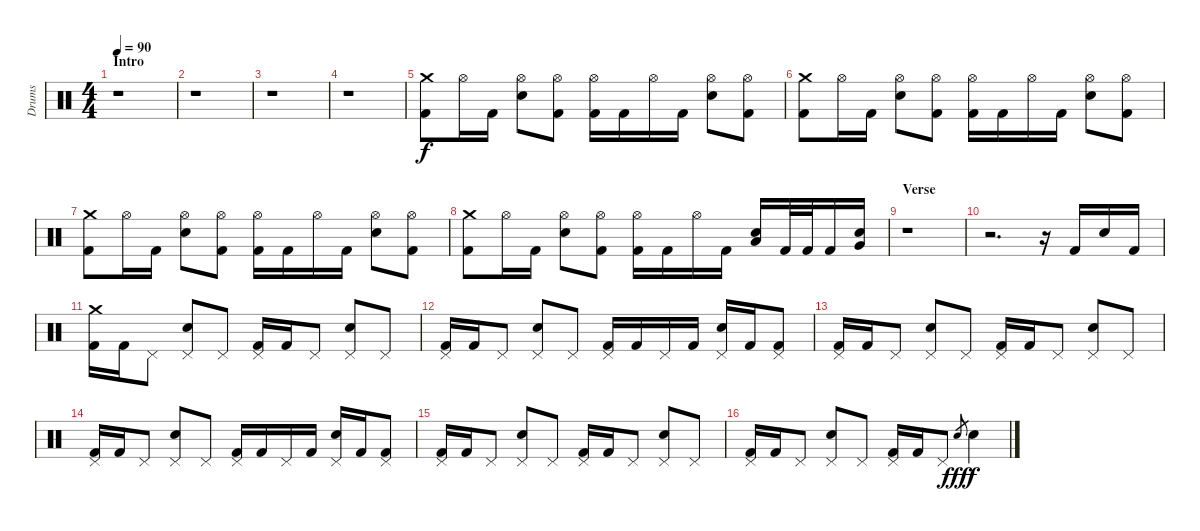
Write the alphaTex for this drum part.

\track ("Drums" "Drums") {instrument percussion}
\staff {score}
\articulation defaults
\ts (4 4)
\section ("" "Intro")
\tempo 90
\clef neutral
\ks c
r.1{dy f} |
r.1 |
r.1 |
r.1 |
("Crash medium (hit)" "Kick (hit) 2").8 "Hi-Hat (open)".16 "Kick (hit) 2".16 ("Hi-Hat (open)" "Electric Snare (hit)").8 ("Hi-Hat (open)" "Kick (hit) 2").8 ("Hi-Hat (open)" "Kick (hit) 2").16 "Kick (hit) 2".16 "Hi-Hat (open)".16 "Kick (hit) 2".16 ("Hi-Hat (open)" "Electric Snare (hit)").8 ("Hi-Hat (open)" "Kick (hit) 2").8 |
("Crash medium (hit)" "Kick (hit) 2").8 "Hi-Hat (open)".16 "Kick (hit) 2".16 ("Hi-Hat (open)" "Electric Snare (hit)").8 ("Hi-Hat (open)" "Kick (hit) 2").8 ("Hi-Hat (open)" "Kick (hit) 2").16 "Kick (hit) 2".16 "Hi-Hat (open)".16 "Kick (hit) 2".16 ("Hi-Hat (open)" "Electric Snare (hit)").8 ("Hi-Hat (open)" "Kick (hit) 2").8 |
("Crash medium (hit)" "Kick (hit) 2").8 "Hi-Hat (open)".16 "Kick (hit) 2".16 ("Hi-Hat (open)" "Electric Snare (hit)").8 ("Hi-Hat (open)" "Kick (hit) 2").8 ("Hi-Hat (open)" "Kick (hit) 2").16 "Kick (hit) 2".16 "Hi-Hat (open)".16 "Kick (hit) 2".16 ("Hi-Hat (open)" "Electric Snare (hit)").8 ("Hi-Hat (open)" "Kick (hit) 2").8 |
("Crash medium (hit)" "Kick (hit) 2").8 "Hi-Hat (open)".16 "Kick (hit) 2".16 ("Hi-Hat (open)" "Electric Snare (hit)").8 ("Hi-Hat (open)" "Kick (hit) 2").8 ("Hi-Hat (open)" "Kick (hit) 2").16 "Kick (hit) 2".16 "Hi-Hat (open)".16 "Kick (hit) 2".16 ("Electric Snare (hit)" "Low Tom (hit)").16 "Kick (hit) 2".32 "Kick (hit) 2".32 "Kick (hit) 2".16 ("Electric Snare (hit)" "Very Low Tom (hit)").16 |
\section ("" "Verse")
r.1 |
r.2{d} r.16 "Kick (hit) 2".16 "Electric Snare (hit)".16 "Kick (hit) 2".16 |
("Crash medium (hit)" "Kick (hit) 2").16 "Kick (hit) 2".16 "Pedal Hi-Hat (hit)".8 ("Pedal Hi-Hat (hit)" "Electric Snare (hit)").8 "Pedal Hi-Hat (hit)".8 ("Pedal Hi-Hat (hit)" "Kick (hit) 2").16 "Kick (hit) 2".16 "Pedal Hi-Hat (hit)".8 ("Pedal Hi-Hat (hit)" "Electric Snare (hit)").8 "Pedal Hi-Hat (hit)".8 |
("Pedal Hi-Hat (hit)" "Kick (hit) 2").16 "Kick (hit) 2".16 "Pedal Hi-Hat (hit)".8 ("Pedal Hi-Hat (hit)" "Electric Snare (hit)").8 "Pedal Hi-Hat (hit)".8 ("Pedal Hi-Hat (hit)" "Kick (hit) 2").16 "Kick (hit) 2".16 "Pedal Hi-Hat (hit)".16 "Kick (hit) 2".16 ("Pedal Hi-Hat (hit)" "Electric Snare (hit)").16 "Kick (hit) 2".16 ("Pedal Hi-Hat (hit)" "Kick (hit) 2").8 |
("Pedal Hi-Hat (hit)" "Kick (hit) 2").16 "Kick (hit) 2".16 "Pedal Hi-Hat (hit)".8 ("Pedal Hi-Hat (hit)" "Electric Snare (hit)").8 "Pedal Hi-Hat (hit)".8 ("Pedal Hi-Hat (hit)" "Kick (hit) 2").16 "Kick (hit) 2".16 "Pedal Hi-Hat (hit)".8 ("Pedal Hi-Hat (hit)" "Electric Snare (hit)").8 "Pedal Hi-Hat (hit)".8 |
("Pedal Hi-Hat (hit)" "Kick (hit) 2").16 "Kick (hit) 2".16 "Pedal Hi-Hat (hit)".8 ("Pedal Hi-Hat (hit)" "Electric Snare (hit)").8 "Pedal Hi-Hat (hit)".8 ("Pedal Hi-Hat (hit)" "Kick (hit) 2").16 "Kick (hit) 2".16 "Pedal Hi-Hat (hit)".16 "Kick (hit) 2".16 ("Pedal Hi-Hat (hit)" "Electric Snare (hit)").16 "Kick (hit) 2".16 ("Pedal Hi-Hat (hit)" "Kick (hit) 2").8 |
("Pedal Hi-Hat (hit)" "Kick (hit) 2").16 "Kick (hit) 2".16 "Pedal Hi-Hat (hit)".8 ("Pedal Hi-Hat (hit)" "Electric Snare (hit)").8 "Pedal Hi-Hat (hit)".8 ("Pedal Hi-Hat (hit)" "Kick (hit) 2").16 "Kick (hit) 2".16 "Pedal Hi-Hat (hit)".8 ("Pedal Hi-Hat (hit)" "Electric Snare (hit)").8 "Pedal Hi-Hat (hit)".8 |
("Pedal Hi-Hat (hit)" "Kick (hit) 2").16 "Kick (hit) 2".16 "Pedal Hi-Hat (hit)".8 ("Pedal Hi-Hat (hit)" "Electric Snare (hit)").8 "Pedal Hi-Hat (hit)".8 ("Pedal Hi-Hat (hit)" "Kick (hit) 2").16 "Kick (hit) 2".16 "Pedal Hi-Hat (hit)".8 "Electric Snare (hit)".8{gr dy fff} "Electric Snare (hit)".4{dy f}
